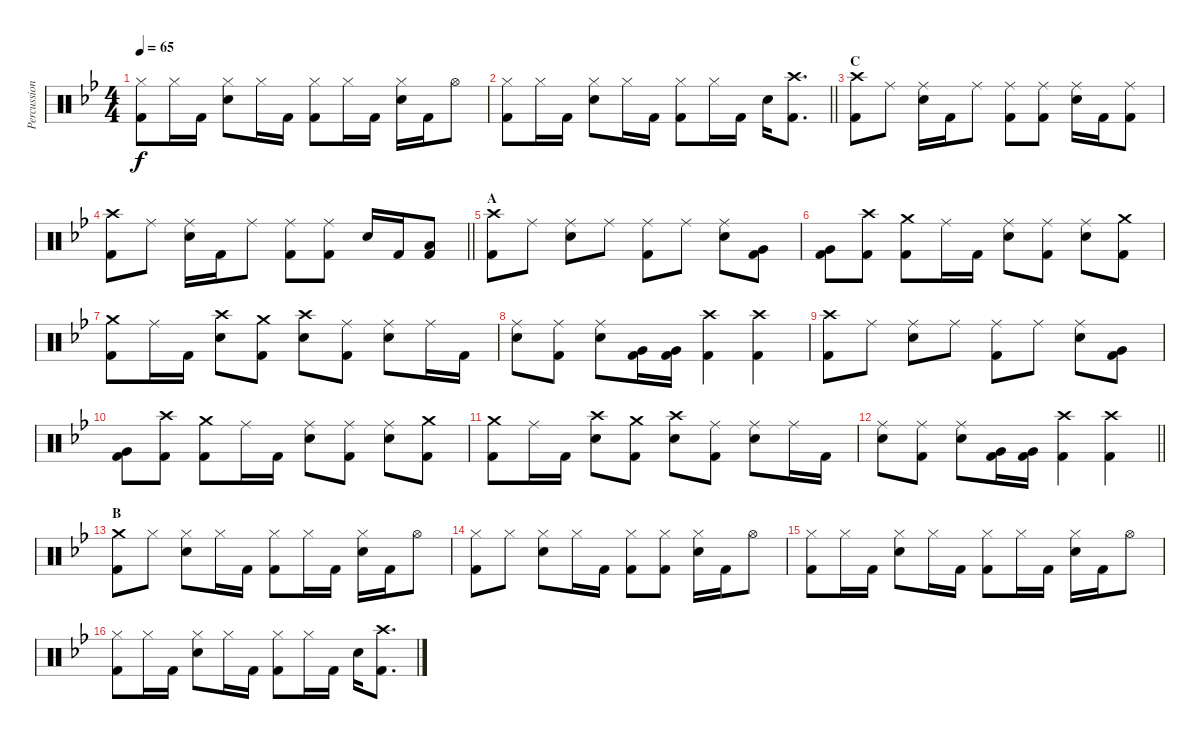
\track ("Percussion" "Percussion") {instrument percussion}
\staff {score}
\articulation defaults
\ts (4 4)
\tempo 65
\clef neutral
\ks bb
("Kick (hit) 2" "Hi-Hat (closed)").8{dy f} "Hi-Hat (closed)".16 "Kick (hit) 2".16 ("Hi-Hat (closed)" "Snare (hit) 2").8 "Hi-Hat (closed)".16 "Kick (hit) 2".16 ("Kick (hit) 2" "Hi-Hat (closed)").8 "Hi-Hat (closed)".16 "Kick (hit) 2".16 ("Hi-Hat (closed)" "Snare (hit) 2").16 "Kick (hit) 2".16 "Hi-Hat (open)".8 |
\barLineRight lightlight
("Kick (hit) 2" "Hi-Hat (closed)").8 "Hi-Hat (closed)".16 "Kick (hit) 2".16 ("Hi-Hat (closed)" "Snare (hit) 2").8 "Hi-Hat (closed)".16 "Kick (hit) 2".16 ("Kick (hit) 2" "Hi-Hat (closed)").8 "Hi-Hat (closed)".16 "Kick (hit) 2".16 "Snare (hit) 2".16 ("Crash high (hit)" "Kick (hit) 2").8{d} |
\section ("" "C")
("Crash high (hit)" "Kick (hit) 2").8 "Ride (middle)".8 ("Ride (middle)" "Snare (hit) 2").16 "Kick (hit) 2".16 "Ride (middle)".8 ("Ride (middle)" "Kick (hit) 2").8 ("Ride (middle)" "Kick (hit) 2").8 ("Ride (middle)" "Snare (hit) 2").16 "Kick (hit) 2".16 ("Kick (hit) 2" "Ride (middle)").8 |
\barLineRight lightlight
("Crash high (hit)" "Kick (hit) 2").8 "Ride (middle)".8 ("Ride (middle)" "Snare (hit) 2").16 "Kick (hit) 2".16 "Ride (middle)".8 ("Ride (middle)" "Kick (hit) 2").8 ("Ride (middle)" "Kick (hit) 2").8 "Snare (hit) 2".16 "Kick (hit) 2".16 ("Low Tom (hit)" "Kick (hit) 2").8 |
\section ("" "A")
("Crash high (hit)" "Kick (hit) 2").8 "Ride (middle)".8 ("Ride (middle)" "Snare (hit) 2").8 "Ride (middle)".8 ("Ride (middle)" "Kick (hit) 2").8 "Ride (middle)".8 ("Ride (middle)" "Snare (hit) 2").8 ("Very Low Tom (hit)" "Kick (hit) 2").8 |
("Very Low Tom (hit)" "Kick (hit) 2").8 ("Crash high (hit)" "Kick (hit) 2").8 ("Crash medium (hit)" "Kick (hit) 2").8 "Ride (middle)".16 "Kick (hit) 2".16 ("Snare (hit) 2" "Ride (middle)").8 ("Ride (middle)" "Kick (hit) 2").8 ("Ride (middle)" "Snare (hit) 2").8 ("Crash medium (hit)" "Kick (hit) 2").8 |
("Crash medium (hit)" "Kick (hit) 2").8 "Ride (middle)".16 "Kick (hit) 2".16 ("Snare (hit) 2" "Crash high (hit)").8 ("Crash medium (hit)" "Kick (hit) 2").8 ("Crash high (hit)" "Snare (hit) 2").8 ("Ride (middle)" "Kick (hit) 2").8 ("Snare (hit) 2" "Ride (middle)").8 "Ride (middle)".16 "Kick (hit) 2".16 |
("Snare (hit) 2" "Ride (middle)").8 ("Kick (hit) 2" "Ride (middle)").8 ("Ride (middle)" "Snare (hit) 2").8 ("Kick (hit) 2" "Very Low Tom (hit)").16 ("Kick (hit) 2" "Very Low Tom (hit)").16 ("Kick (hit) 2" "Crash high (hit)").4 ("Kick (hit) 2" "Crash high (hit)").4 |
("Crash high (hit)" "Kick (hit) 2").8 "Ride (middle)".8 ("Ride (middle)" "Snare (hit) 2").8 "Ride (middle)".8 ("Ride (middle)" "Kick (hit) 2").8 "Ride (middle)".8 ("Ride (middle)" "Snare (hit) 2").8 ("Very Low Tom (hit)" "Kick (hit) 2").8 |
("Very Low Tom (hit)" "Kick (hit) 2").8 ("Crash high (hit)" "Kick (hit) 2").8 ("Crash medium (hit)" "Kick (hit) 2").8 "Ride (middle)".16 "Kick (hit) 2".16 ("Snare (hit) 2" "Ride (middle)").8 ("Ride (middle)" "Kick (hit) 2").8 ("Ride (middle)" "Snare (hit) 2").8 ("Crash medium (hit)" "Kick (hit) 2").8 |
("Crash medium (hit)" "Kick (hit) 2").8 "Ride (middle)".16 "Kick (hit) 2".16 ("Snare (hit) 2" "Crash high (hit)").8 ("Crash medium (hit)" "Kick (hit) 2").8 ("Crash high (hit)" "Snare (hit) 2").8 ("Ride (middle)" "Kick (hit) 2").8 ("Snare (hit) 2" "Ride (middle)").8 "Ride (middle)".16 "Kick (hit) 2".16 |
\barLineRight lightlight
("Snare (hit) 2" "Ride (middle)").8 ("Kick (hit) 2" "Ride (middle)").8 ("Ride (middle)" "Snare (hit) 2").8 ("Kick (hit) 2" "Very Low Tom (hit)").16 ("Kick (hit) 2" "Very Low Tom (hit)").16 ("Kick (hit) 2" "Crash high (hit)").4 ("Kick (hit) 2" "Crash high (hit)").4 |
\section ("" "B")
("Kick (hit) 2" "Crash medium (hit)").8 "Hi-Hat (closed)".8 ("Hi-Hat (closed)" "Snare (hit) 2").8 "Hi-Hat (closed)".16 "Kick (hit) 2".16 ("Kick (hit) 2" "Hi-Hat (closed)").8 "Hi-Hat (closed)".16 "Kick (hit) 2".16 ("Hi-Hat (closed)" "Snare (hit) 2").16 "Kick (hit) 2".16 "Hi-Hat (open)".8 |
("Kick (hit) 2" "Hi-Hat (closed)").8 "Hi-Hat (closed)".8 ("Hi-Hat (closed)" "Snare (hit) 2").8 "Hi-Hat (closed)".16 "Kick (hit) 2".16 ("Kick (hit) 2" "Hi-Hat (closed)").8 ("Hi-Hat (closed)" "Kick (hit) 2").8 ("Hi-Hat (closed)" "Snare (hit) 2").16 "Kick (hit) 2".16 "Hi-Hat (open)".8 |
("Kick (hit) 2" "Hi-Hat (closed)").8 "Hi-Hat (closed)".16 "Kick (hit) 2".16 ("Hi-Hat (closed)" "Snare (hit) 2").8 "Hi-Hat (closed)".16 "Kick (hit) 2".16 ("Kick (hit) 2" "Hi-Hat (closed)").8 "Hi-Hat (closed)".16 "Kick (hit) 2".16 ("Hi-Hat (closed)" "Snare (hit) 2").16 "Kick (hit) 2".16 "Hi-Hat (open)".8 |
("Kick (hit) 2" "Hi-Hat (closed)").8 "Hi-Hat (closed)".16 "Kick (hit) 2".16 ("Hi-Hat (closed)" "Snare (hit) 2").8 "Hi-Hat (closed)".16 "Kick (hit) 2".16 ("Kick (hit) 2" "Hi-Hat (closed)").8 "Hi-Hat (closed)".16 "Kick (hit) 2".16 "Snare (hit) 2".16 ("Crash high (hit)" "Kick (hit) 2").8{d}
